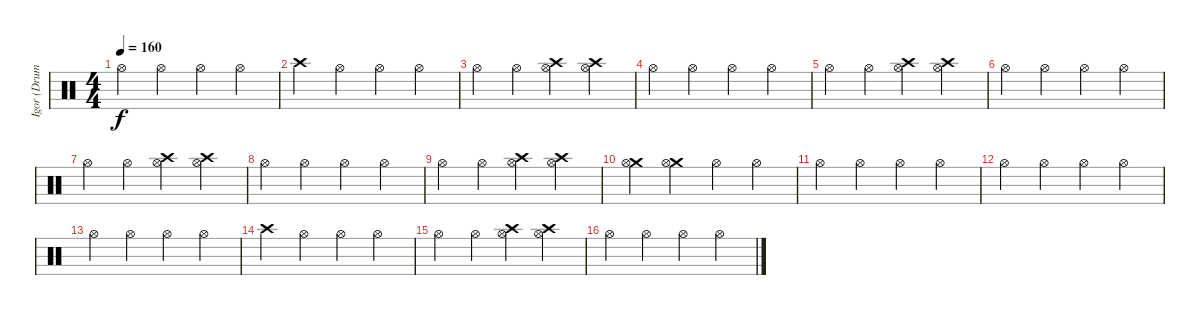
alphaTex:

\track ("Igor (Drum - Char & Cymb)" "Igor (Drum") {instrument percussion}
\staff {score}
\articulation defaults
\ts (4 4)
\tempo 160
\clef neutral
\ks c "Hi-Hat (open)".4{dy f} "Hi-Hat (open)".4 "Hi-Hat (open)".4 "Hi-Hat (open)".4
|
"Crash high (hit)".4 "Hi-Hat (open)".4 "Hi-Hat (open)".4 "Hi-Hat (open)".4 |
"Hi-Hat (open)".4 "Hi-Hat (open)".4 ("Crash high (hit)" "Hi-Hat (open)").4 ("Crash high (hit)" "Hi-Hat (open)").4 |
"Hi-Hat (open)".4 "Hi-Hat (open)".4 "Hi-Hat (open)".4 "Hi-Hat (open)".4 |
"Hi-Hat (open)".4 "Hi-Hat (open)".4 ("Crash high (hit)" "Hi-Hat (open)").4 ("Crash high (hit)" "Hi-Hat (open)").4 |
"Hi-Hat (open)".4 "Hi-Hat (open)".4 "Hi-Hat (open)".4 "Hi-Hat (open)".4 |
"Hi-Hat (open)".4 "Hi-Hat (open)".4 ("Crash high (hit)" "Hi-Hat (open)").4 ("Crash high (hit)" "Hi-Hat (open)").4 |
"Hi-Hat (open)".4 "Hi-Hat (open)".4 "Hi-Hat (open)".4 "Hi-Hat (open)".4 |
"Hi-Hat (open)".4 "Hi-Hat (open)".4 ("Crash high (hit)" "Hi-Hat (open)").4 ("Crash high (hit)" "Hi-Hat (open)").4 |
("Crash medium (hit)" "Hi-Hat (open)").4 ("Crash medium (hit)" "Hi-Hat (open)").4 "Hi-Hat (open)".4 "Hi-Hat (open)".4 |
"Hi-Hat (open)".4 "Hi-Hat (open)".4 "Hi-Hat (open)".4 "Hi-Hat (open)".4 |
"Hi-Hat (open)".4 "Hi-Hat (open)".4 "Hi-Hat (open)".4 "Hi-Hat (open)".4 |
"Hi-Hat (open)".4 "Hi-Hat (open)".4 "Hi-Hat (open)".4 "Hi-Hat (open)".4 |
"Crash high (hit)".4 "Hi-Hat (open)".4 "Hi-Hat (open)".4 "Hi-Hat (open)".4 |
"Hi-Hat (open)".4 "Hi-Hat (open)".4 ("Crash high (hit)" "Hi-Hat (open)").4 ("Crash high (hit)" "Hi-Hat (open)").4 |
"Hi-Hat (open)".4 "Hi-Hat (open)".4 "Hi-Hat (open)".4 "Hi-Hat (open)".4
